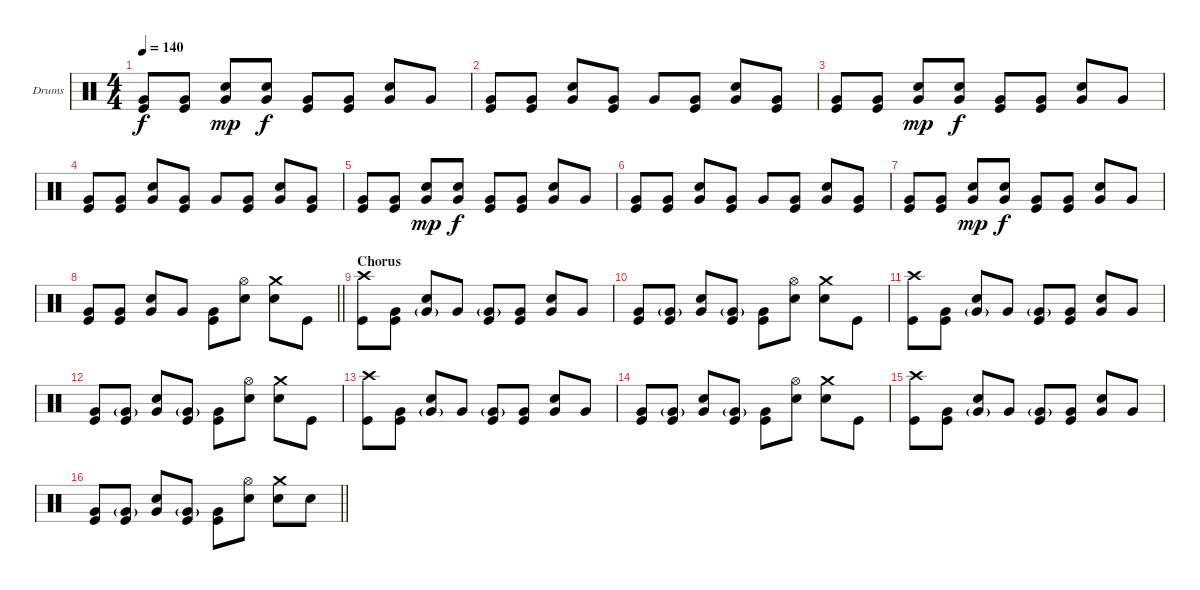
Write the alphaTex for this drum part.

\bracketExtendMode groupsimilarinstruments
\firstSystemTrackNameOrientation horizontal
\otherSystemsTrackNameOrientation horizontal
\track ("Drumkit" "Drums") {instrument percussion}
\staff {score}
\articulation defaults
\ts (4 4)
\tempo 140
\clef neutral
\ks c
("Very Low Tom (hit)" "Kick (hit)").8{dy f} ("Very Low Tom (hit)" "Kick (hit)").8 ("Very Low Tom (hit)" "Snare (hit) 2").8{dy mp} ("Very Low Tom (hit)" "Snare (hit) 2").8{dy f} ("Very Low Tom (hit)" "Kick (hit)").8 ("Very Low Tom (hit)" "Kick (hit)").8 ("Very Low Tom (hit)" "Snare (hit) 2").8 "Very Low Tom (hit)".8 |
("Very Low Tom (hit)" "Kick (hit)").8 ("Very Low Tom (hit)" "Kick (hit)").8 ("Very Low Tom (hit)" "Snare (hit) 2").8 ("Very Low Tom (hit)" "Kick (hit)").8 "Very Low Tom (hit)".8 ("Very Low Tom (hit)" "Kick (hit)").8 ("Very Low Tom (hit)" "Snare (hit) 2").8 ("Very Low Tom (hit)" "Kick (hit)").8 |
("Very Low Tom (hit)" "Kick (hit)").8 ("Very Low Tom (hit)" "Kick (hit)").8 ("Very Low Tom (hit)" "Snare (hit) 2").8{dy mp} ("Very Low Tom (hit)" "Snare (hit) 2").8{dy f} ("Very Low Tom (hit)" "Kick (hit)").8 ("Very Low Tom (hit)" "Kick (hit)").8 ("Very Low Tom (hit)" "Snare (hit) 2").8 "Very Low Tom (hit)".8 |
("Very Low Tom (hit)" "Kick (hit)").8 ("Very Low Tom (hit)" "Kick (hit)").8 ("Very Low Tom (hit)" "Snare (hit) 2").8 ("Very Low Tom (hit)" "Kick (hit)").8 "Very Low Tom (hit)".8 ("Very Low Tom (hit)" "Kick (hit)").8 ("Very Low Tom (hit)" "Snare (hit) 2").8 ("Very Low Tom (hit)" "Kick (hit)").8 |
("Very Low Tom (hit)" "Kick (hit)").8 ("Very Low Tom (hit)" "Kick (hit)").8 ("Very Low Tom (hit)" "Snare (hit) 2").8{dy mp} ("Very Low Tom (hit)" "Snare (hit) 2").8{dy f} ("Very Low Tom (hit)" "Kick (hit)").8 ("Very Low Tom (hit)" "Kick (hit)").8 ("Very Low Tom (hit)" "Snare (hit) 2").8 "Very Low Tom (hit)".8 |
("Very Low Tom (hit)" "Kick (hit)").8 ("Very Low Tom (hit)" "Kick (hit)").8 ("Very Low Tom (hit)" "Snare (hit) 2").8 ("Very Low Tom (hit)" "Kick (hit)").8 "Very Low Tom (hit)".8 ("Very Low Tom (hit)" "Kick (hit)").8 ("Very Low Tom (hit)" "Snare (hit) 2").8 ("Very Low Tom (hit)" "Kick (hit)").8 |
("Very Low Tom (hit)" "Kick (hit)").8 ("Very Low Tom (hit)" "Kick (hit)").8 ("Very Low Tom (hit)" "Snare (hit) 2").8{dy mp} ("Very Low Tom (hit)" "Snare (hit) 2").8{dy f} ("Very Low Tom (hit)" "Kick (hit)").8 ("Very Low Tom (hit)" "Kick (hit)").8 ("Very Low Tom (hit)" "Snare (hit) 2").8 "Very Low Tom (hit)".8 |
\barLineRight lightlight
("Very Low Tom (hit)" "Kick (hit)").8 ("Very Low Tom (hit)" "Kick (hit)").8 ("Very Low Tom (hit)" "Snare (hit) 2").8 "Very Low Tom (hit)".8 ("Very Low Tom (hit)" "Kick (hit)").8 ("Hi-Hat (open)" "Snare (hit) 2").8 ("Crash medium (hit)" "Snare (hit) 2").8 "Kick (hit)".8 |
\section ("" "Chorus")
("Crash high (hit)" "Kick (hit)").8 ("Very Low Tom (hit)" "Kick (hit)").8 ("Very Low Tom (hit)"{g} "Snare (hit) 2").8 "Very Low Tom (hit)".8 ("Very Low Tom (hit)"{g} "Kick (hit)").8 ("Very Low Tom (hit)" "Kick (hit)").8 ("Very Low Tom (hit)" "Snare (hit) 2").8 "Very Low Tom (hit)".8 |
("Very Low Tom (hit)" "Kick (hit)").8 ("Very Low Tom (hit)"{g} "Kick (hit)").8 ("Very Low Tom (hit)" "Snare (hit) 2").8 ("Very Low Tom (hit)"{g} "Kick (hit)").8 ("Very Low Tom (hit)" "Kick (hit)").8 ("Hi-Hat (open)" "Snare (hit) 2").8 ("Crash medium (hit)" "Snare (hit) 2").8 "Kick (hit)".8 |
("Crash high (hit)" "Kick (hit)").8 ("Very Low Tom (hit)" "Kick (hit)").8 ("Very Low Tom (hit)"{g} "Snare (hit) 2").8 "Very Low Tom (hit)".8 ("Very Low Tom (hit)"{g} "Kick (hit)").8 ("Very Low Tom (hit)" "Kick (hit)").8 ("Very Low Tom (hit)" "Snare (hit) 2").8 "Very Low Tom (hit)".8 |
("Very Low Tom (hit)" "Kick (hit)").8 ("Very Low Tom (hit)"{g} "Kick (hit)").8 ("Very Low Tom (hit)" "Snare (hit) 2").8 ("Very Low Tom (hit)"{g} "Kick (hit)").8 ("Very Low Tom (hit)" "Kick (hit)").8 ("Hi-Hat (open)" "Snare (hit) 2").8 ("Crash medium (hit)" "Snare (hit) 2").8 "Kick (hit)".8 |
("Crash high (hit)" "Kick (hit)").8 ("Very Low Tom (hit)" "Kick (hit)").8 ("Very Low Tom (hit)"{g} "Snare (hit) 2").8 "Very Low Tom (hit)".8 ("Very Low Tom (hit)"{g} "Kick (hit)").8 ("Very Low Tom (hit)" "Kick (hit)").8 ("Very Low Tom (hit)" "Snare (hit) 2").8 "Very Low Tom (hit)".8 |
("Very Low Tom (hit)" "Kick (hit)").8 ("Very Low Tom (hit)"{g} "Kick (hit)").8 ("Very Low Tom (hit)" "Snare (hit) 2").8 ("Very Low Tom (hit)"{g} "Kick (hit)").8 ("Very Low Tom (hit)" "Kick (hit)").8 ("Hi-Hat (open)" "Snare (hit) 2").8 ("Crash medium (hit)" "Snare (hit) 2").8 "Kick (hit)".8 |
("Crash high (hit)" "Kick (hit)").8 ("Very Low Tom (hit)" "Kick (hit)").8 ("Very Low Tom (hit)"{g} "Snare (hit) 2").8 "Very Low Tom (hit)".8 ("Very Low Tom (hit)"{g} "Kick (hit)").8 ("Very Low Tom (hit)" "Kick (hit)").8 ("Very Low Tom (hit)" "Snare (hit) 2").8 "Very Low Tom (hit)".8 |
\barLineRight lightlight
("Very Low Tom (hit)" "Kick (hit)").8 ("Very Low Tom (hit)"{g} "Kick (hit)").8 ("Very Low Tom (hit)" "Snare (hit) 2").8 ("Very Low Tom (hit)"{g} "Kick (hit)").8 ("Very Low Tom (hit)" "Kick (hit)").8 ("Hi-Hat (open)" "Snare (hit) 2").8 ("Crash medium (hit)" "Snare (hit) 2").8 "Snare (hit) 2".8
